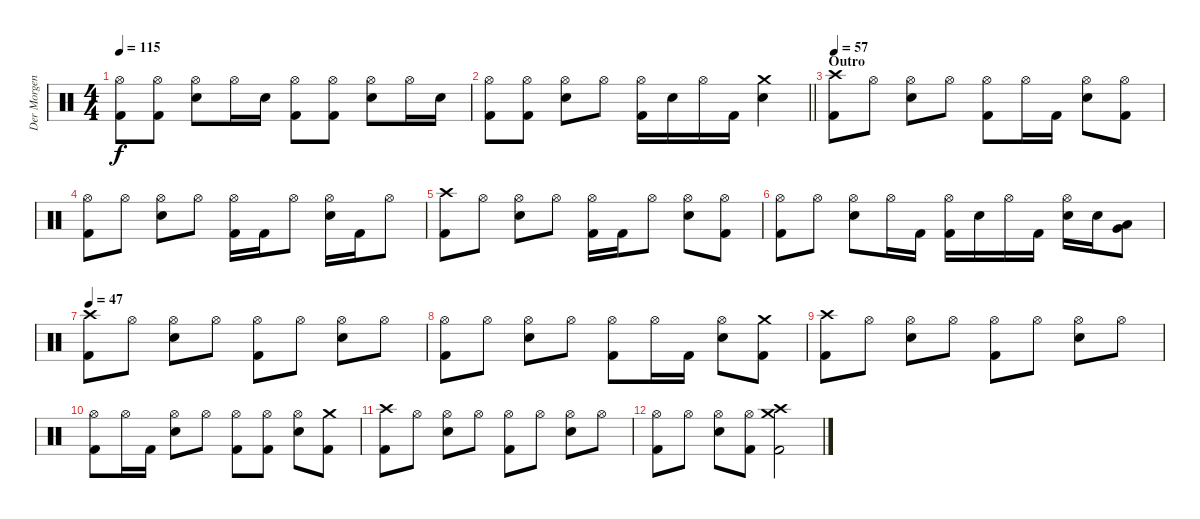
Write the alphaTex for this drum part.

\track ("Der Morgenstern" "Der Morgen") {instrument percussion}
\staff {score}
\articulation defaults
\ts (4 4)
\tempo 115
\clef neutral
\ks c
("Hi-Hat (open)" "Kick (hit) 2").8{dy f} ("Hi-Hat (open)" "Kick (hit) 2").8 ("Hi-Hat (open)" "Electric Snare (hit)").8 "Hi-Hat (open)".16 "Electric Snare (hit)".16 ("Hi-Hat (open)" "Kick (hit) 2").8 ("Hi-Hat (open)" "Kick (hit) 2").8 ("Hi-Hat (open)" "Electric Snare (hit)").8 "Hi-Hat (open)".16 "Electric Snare (hit)".16 |
\barLineRight lightlight
("Hi-Hat (open)" "Kick (hit) 2").8 ("Hi-Hat (open)" "Kick (hit) 2").8 ("Hi-Hat (open)" "Electric Snare (hit)").8 "Hi-Hat (open)".8 ("Hi-Hat (open)" "Kick (hit) 2").16 "Electric Snare (hit)".16 "Hi-Hat (open)".16 "Kick (hit) 2".16 ("Crash medium (hit)" "Electric Snare (hit)").4 |
\section ("" "Outro")
\tempo 57
("Crash high (hit)" "Kick (hit) 2").8 "Hi-Hat (open)".8 ("Hi-Hat (open)" "Electric Snare (hit)").8 "Hi-Hat (open)".8 ("Hi-Hat (open)" "Kick (hit) 2").8 "Hi-Hat (open)".16 "Kick (hit) 2".16 ("Hi-Hat (open)" "Electric Snare (hit)").8 ("Hi-Hat (open)" "Kick (hit) 2").8 |
("Hi-Hat (open)" "Kick (hit) 2").8 "Hi-Hat (open)".8 ("Hi-Hat (open)" "Electric Snare (hit)").8 "Hi-Hat (open)".8 ("Hi-Hat (open)" "Kick (hit) 2").16 "Kick (hit) 2".16 "Hi-Hat (open)".8 ("Hi-Hat (open)" "Electric Snare (hit)").16 "Kick (hit) 2".16 "Hi-Hat (open)".8 |
("Crash high (hit)" "Kick (hit) 2").8 "Hi-Hat (open)".8 ("Hi-Hat (open)" "Electric Snare (hit)").8 "Hi-Hat (open)".8 ("Hi-Hat (open)" "Kick (hit) 2").16 "Kick (hit) 2".16 "Hi-Hat (open)".8 ("Hi-Hat (open)" "Electric Snare (hit)").8 ("Hi-Hat (open)" "Kick (hit) 2").8 |
("Hi-Hat (open)" "Kick (hit) 2").8 "Hi-Hat (open)".8 ("Hi-Hat (open)" "Electric Snare (hit)").8 "Hi-Hat (open)".16 "Kick (hit) 2".16 ("Hi-Hat (open)" "Kick (hit) 2").16 "Electric Snare (hit)".16 "Hi-Hat (open)".16 "Kick (hit) 2".16 ("Hi-Hat (open)" "Electric Snare (hit)").16 "Electric Snare (hit)".16 ("Very Low Tom (hit)" "Low Floor Tom (hit)").8 |
\tempo 47
("Crash high (hit)" "Kick (hit) 2").8 "Hi-Hat (open)".8 ("Hi-Hat (open)" "Electric Snare (hit)").8 "Hi-Hat (open)".8 ("Hi-Hat (open)" "Kick (hit) 2").8 "Hi-Hat (open)".8 ("Hi-Hat (open)" "Electric Snare (hit)").8 "Hi-Hat (open)".8 |
("Hi-Hat (open)" "Kick (hit) 2").8 "Hi-Hat (open)".8 ("Hi-Hat (open)" "Electric Snare (hit)").8 "Hi-Hat (open)".8 ("Hi-Hat (open)" "Kick (hit) 2").8 "Hi-Hat (open)".16 "Kick (hit) 2".16 ("Hi-Hat (open)" "Electric Snare (hit)").8 ("Crash medium (hit)" "Kick (hit) 2").8 |
("Crash high (hit)" "Kick (hit) 2").8 "Hi-Hat (open)".8 ("Hi-Hat (open)" "Electric Snare (hit)").8 "Hi-Hat (open)".8 ("Hi-Hat (open)" "Kick (hit) 2").8 "Hi-Hat (open)".8 ("Hi-Hat (open)" "Electric Snare (hit)").8 "Hi-Hat (open)".8 |
("Hi-Hat (open)" "Kick (hit) 2").8 "Hi-Hat (open)".16 "Kick (hit) 2".16 ("Hi-Hat (open)" "Electric Snare (hit)").8 "Hi-Hat (open)".8 ("Hi-Hat (open)" "Kick (hit) 2").8 ("Hi-Hat (open)" "Kick (hit) 2").8 ("Hi-Hat (open)" "Electric Snare (hit)").8 ("Crash medium (hit)" "Kick (hit) 2").8 |
("Crash high (hit)" "Kick (hit) 2").8 "Hi-Hat (open)".8 ("Hi-Hat (open)" "Electric Snare (hit)").8 "Hi-Hat (open)".8 ("Hi-Hat (open)" "Kick (hit) 2").8 "Hi-Hat (open)".8 ("Hi-Hat (open)" "Electric Snare (hit)").8 "Hi-Hat (open)".8 |
("Hi-Hat (open)" "Kick (hit) 2").8 "Hi-Hat (open)".8 ("Hi-Hat (open)" "Electric Snare (hit)").8 ("Hi-Hat (open)" "Kick (hit) 2").8 ("Crash high (hit)" "Crash medium (hit)" "Kick (hit) 2").2
